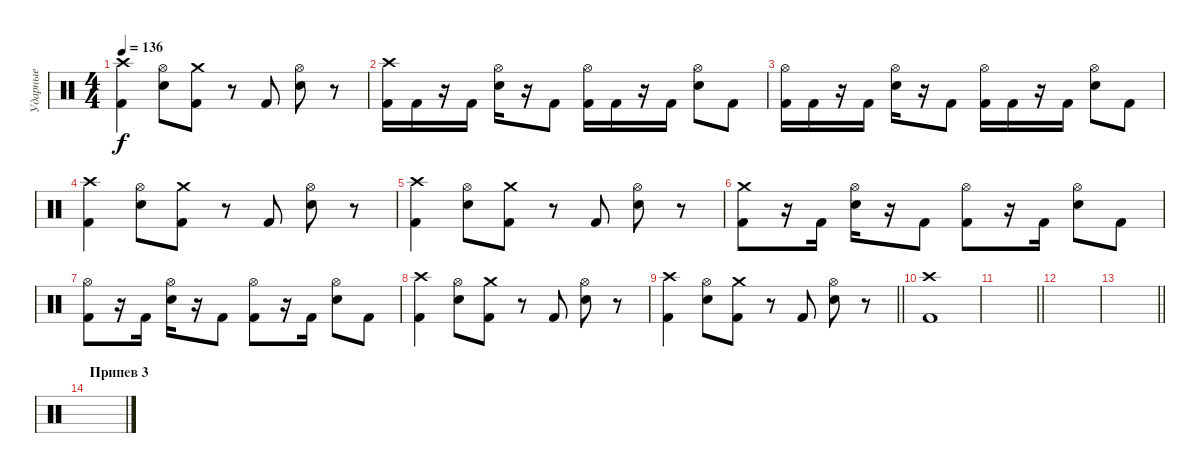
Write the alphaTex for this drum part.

\track ("Ударные" "Ударные") {instrument percussion}
\staff {score}
\articulation defaults
\ts (4 4)
\tempo 136
\clef neutral
\ks c
("Crash high (hit)" "Kick (hit) 2").4{dy f} ("Hi-Hat (open)" "Snare (hit) 2").8 ("Crash medium (hit)" "Kick (hit) 2").8 r.8 "Kick (hit) 2".8 ("Hi-Hat (open)" "Snare (hit) 2").8 r.8 |
("Crash high (hit)" "Kick (hit) 2").16 "Kick (hit) 2".16 r.16 "Kick (hit) 2".16 ("Hi-Hat (open)" "Snare (hit) 2").16 r.16 "Kick (hit) 2".8 ("Hi-Hat (open)" "Kick (hit) 2").16 "Kick (hit) 2".16 r.16 "Kick (hit) 2".16 ("Hi-Hat (open)" "Snare (hit) 2").8 "Kick (hit) 2".8 |
("Hi-Hat (open)" "Kick (hit) 2").16 "Kick (hit) 2".16 r.16 "Kick (hit) 2".16 ("Hi-Hat (open)" "Snare (hit) 2").16 r.16 "Kick (hit) 2".8 ("Hi-Hat (open)" "Kick (hit) 2").16 "Kick (hit) 2".16 r.16 "Kick (hit) 2".16 ("Hi-Hat (open)" "Snare (hit) 2").8 "Kick (hit) 2".8 |
("Crash high (hit)" "Kick (hit) 2").4 ("Hi-Hat (open)" "Snare (hit) 2").8 ("Crash medium (hit)" "Kick (hit) 2").8 r.8 "Kick (hit) 2".8 ("Hi-Hat (open)" "Snare (hit) 2").8 r.8 |
("Crash high (hit)" "Kick (hit) 2").4 ("Hi-Hat (open)" "Snare (hit) 2").8 ("Crash medium (hit)" "Kick (hit) 2").8 r.8 "Kick (hit) 2".8 ("Hi-Hat (open)" "Snare (hit) 2").8 r.8 |
("Crash medium (hit)" "Kick (hit) 2").8 r.16 "Kick (hit) 2".16 ("Hi-Hat (open)" "Snare (hit) 2").16 r.16 "Kick (hit) 2".8 ("Hi-Hat (open)" "Kick (hit) 2").8 r.16 "Kick (hit) 2".16 ("Hi-Hat (open)" "Snare (hit) 2").8 "Kick (hit) 2".8 |
("Hi-Hat (open)" "Kick (hit) 2").8 r.16 "Kick (hit) 2".16 ("Hi-Hat (open)" "Snare (hit) 2").16 r.16 "Kick (hit) 2".8 ("Hi-Hat (open)" "Kick (hit) 2").8 r.16 "Kick (hit) 2".16 ("Hi-Hat (open)" "Snare (hit) 2").8 "Kick (hit) 2".8 |
("Crash high (hit)" "Kick (hit) 2").4 ("Hi-Hat (open)" "Snare (hit) 2").8 ("Crash medium (hit)" "Kick (hit) 2").8 r.8 "Kick (hit) 2".8 ("Hi-Hat (open)" "Snare (hit) 2").8 r.8 |
\barLineRight lightlight
("Crash high (hit)" "Kick (hit) 2").4 ("Hi-Hat (open)" "Snare (hit) 2").8 ("Crash medium (hit)" "Kick (hit) 2").8 r.8 "Kick (hit) 2".8 ("Hi-Hat (open)" "Snare (hit) 2").8 r.8 |
("Crash high (hit)" "Kick (hit) 2").1 |
\barLineRight lightlight
|
|
\barLineRight lightlight
|
\section ("" "Припев 3")
